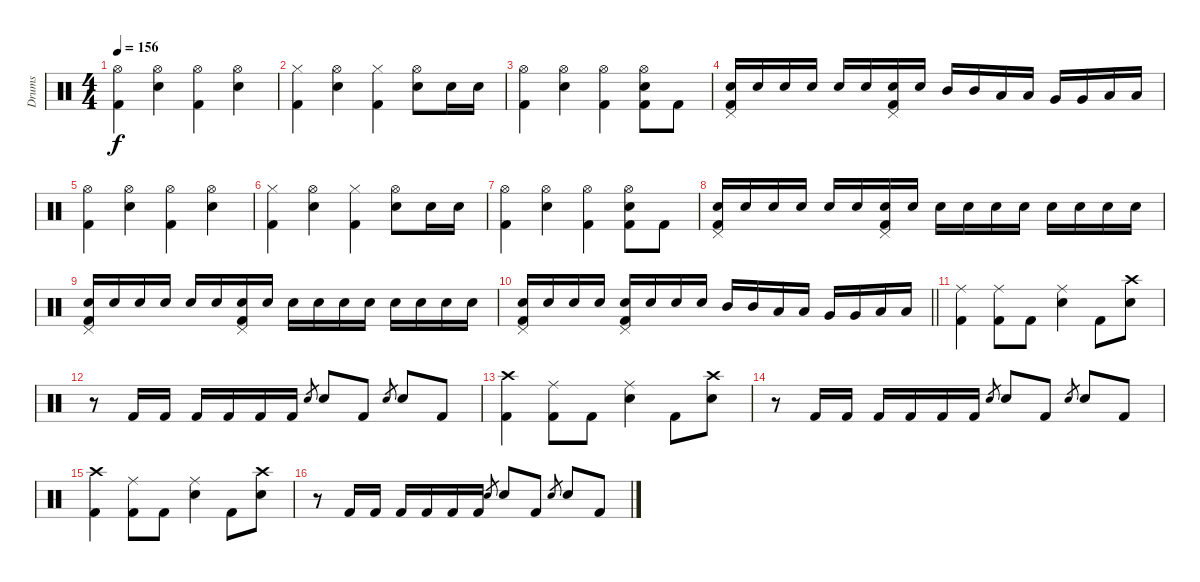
\track ("Drums" "Drums") {instrument percussion}
\staff {score}
\articulation defaults
\ts (4 4)
\tempo 156
\clef neutral
\ks c
("Hi-Hat (open)" "Kick (hit) 2").4{dy f} ("Hi-Hat (open)" "Electric Snare (hit)").4 ("Hi-Hat (open)" "Kick (hit) 2").4 ("Hi-Hat (open)" "Electric Snare (hit)").4 |
("Hi-Hat (closed)" "Kick (hit) 2").4 ("Hi-Hat (open)" "Electric Snare (hit)").4 ("Hi-Hat (closed)" "Kick (hit) 2").4 ("Hi-Hat (open)" "Electric Snare (hit)").8 "Electric Snare (hit)".16 "Electric Snare (hit)".16 |
("Hi-Hat (open)" "Kick (hit) 2").4 ("Hi-Hat (open)" "Electric Snare (hit)").4 ("Hi-Hat (open)" "Kick (hit) 2").4 ("Hi-Hat (open)" "Electric Snare (hit)" "Kick (hit) 2").8 "Kick (hit) 2".8 |
("Pedal Hi-Hat (hit)" "Electric Snare (hit)" "Kick (hit) 2").16 "Electric Snare (hit)".16 "Electric Snare (hit)".16 "Electric Snare (hit)".16 "Electric Snare (hit)".16 "Electric Snare (hit)".16 ("Pedal Hi-Hat (hit)" "Electric Snare (hit)" "Kick (hit) 2").16 "Electric Snare (hit)".16 "Mid Tom (hit)".16 "Mid Tom (hit)".16 "Low Tom (hit)".16 "Low Tom (hit)".16 "Very Low Tom (hit)".16 "Very Low Tom (hit)".16 "Low Floor Tom (hit)".16 "Low Floor Tom (hit)".16 |
("Hi-Hat (open)" "Kick (hit) 2").4 ("Hi-Hat (open)" "Electric Snare (hit)").4 ("Hi-Hat (open)" "Kick (hit) 2").4 ("Hi-Hat (open)" "Electric Snare (hit)").4 |
("Hi-Hat (closed)" "Kick (hit) 2").4 ("Hi-Hat (open)" "Electric Snare (hit)").4 ("Hi-Hat (closed)" "Kick (hit) 2").4 ("Hi-Hat (open)" "Electric Snare (hit)").8 "Electric Snare (hit)".16 "Electric Snare (hit)".16 |
("Hi-Hat (open)" "Kick (hit) 2").4 ("Hi-Hat (open)" "Electric Snare (hit)").4 ("Hi-Hat (open)" "Kick (hit) 2").4 ("Hi-Hat (open)" "Electric Snare (hit)" "Kick (hit) 2").8 "Kick (hit) 2".8 |
("Pedal Hi-Hat (hit)" "Electric Snare (hit)" "Kick (hit) 2").16 "Electric Snare (hit)".16 "Electric Snare (hit)".16 "Electric Snare (hit)".16 "Electric Snare (hit)".16 "Electric Snare (hit)".16 ("Pedal Hi-Hat (hit)" "Electric Snare (hit)" "Kick (hit) 2").16 "Electric Snare (hit)".16 "Electric Snare (hit)".16 "Electric Snare (hit)".16 "Electric Snare (hit)".16 "Electric Snare (hit)".16 "Electric Snare (hit)".16 "Electric Snare (hit)".16 "Electric Snare (hit)".16 "Electric Snare (hit)".16 |
("Pedal Hi-Hat (hit)" "Electric Snare (hit)" "Kick (hit) 2").16 "Electric Snare (hit)".16 "Electric Snare (hit)".16 "Electric Snare (hit)".16 "Electric Snare (hit)".16 "Electric Snare (hit)".16 ("Pedal Hi-Hat (hit)" "Electric Snare (hit)" "Kick (hit) 2").16 "Electric Snare (hit)".16 "Electric Snare (hit)".16 "Electric Snare (hit)".16 "Electric Snare (hit)".16 "Electric Snare (hit)".16 "Electric Snare (hit)".16 "Electric Snare (hit)".16 "Electric Snare (hit)".16 "Electric Snare (hit)".16 |
\barLineRight lightlight
("Pedal Hi-Hat (hit)" "Electric Snare (hit)" "Kick (hit) 2").16 "Electric Snare (hit)".16 "Electric Snare (hit)".16 "Electric Snare (hit)".16 ("Pedal Hi-Hat (hit)" "Electric Snare (hit)" "Kick (hit) 2").16 "Electric Snare (hit)".16 "Electric Snare (hit)".16 "Electric Snare (hit)".16 "Mid Tom (hit)".16 "Mid Tom (hit)".16 "Low Tom (hit)".16 "Low Tom (hit)".16 "Very Low Tom (hit)".16 "Very Low Tom (hit)".16 "Low Floor Tom (hit)".16 "Low Floor Tom (hit)".16 |
("Ride (middle)" "Kick (hit) 2").4 ("Ride (middle)" "Kick (hit) 2").8 "Kick (hit) 2".8 ("Ride (middle)" "Electric Snare (hit)").4 "Kick (hit) 2".8 ("Crash high (hit)" "Electric Snare (hit)").8 |
r.8 "Kick (hit) 2".16 "Kick (hit) 2".16 "Kick (hit) 2".16 "Kick (hit) 2".16 "Kick (hit) 2".16 "Kick (hit) 2".16 "Electric Snare (hit)".8{gr} "Electric Snare (hit)".8 "Kick (hit) 2".8 "Electric Snare (hit)".8{gr} "Electric Snare (hit)".8 "Kick (hit) 2".8 |
("Crash high (hit)" "Kick (hit) 2").4 ("Ride (middle)" "Kick (hit) 2").8 "Kick (hit) 2".8 ("Ride (middle)" "Electric Snare (hit)").4 "Kick (hit) 2".8 ("Crash high (hit)" "Electric Snare (hit)").8 |
r.8 "Kick (hit) 2".16 "Kick (hit) 2".16 "Kick (hit) 2".16 "Kick (hit) 2".16 "Kick (hit) 2".16 "Kick (hit) 2".16 "Electric Snare (hit)".8{gr} "Electric Snare (hit)".8 "Kick (hit) 2".8 "Electric Snare (hit)".8{gr} "Electric Snare (hit)".8 "Kick (hit) 2".8 |
("Crash high (hit)" "Kick (hit) 2").4 ("Ride (middle)" "Kick (hit) 2").8 "Kick (hit) 2".8 ("Ride (middle)" "Electric Snare (hit)").4 "Kick (hit) 2".8 ("Crash high (hit)" "Electric Snare (hit)").8 |
r.8 "Kick (hit) 2".16 "Kick (hit) 2".16 "Kick (hit) 2".16 "Kick (hit) 2".16 "Kick (hit) 2".16 "Kick (hit) 2".16 "Electric Snare (hit)".8{gr} "Electric Snare (hit)".8 "Kick (hit) 2".8 "Electric Snare (hit)".8{gr} "Electric Snare (hit)".8 "Kick (hit) 2".8
